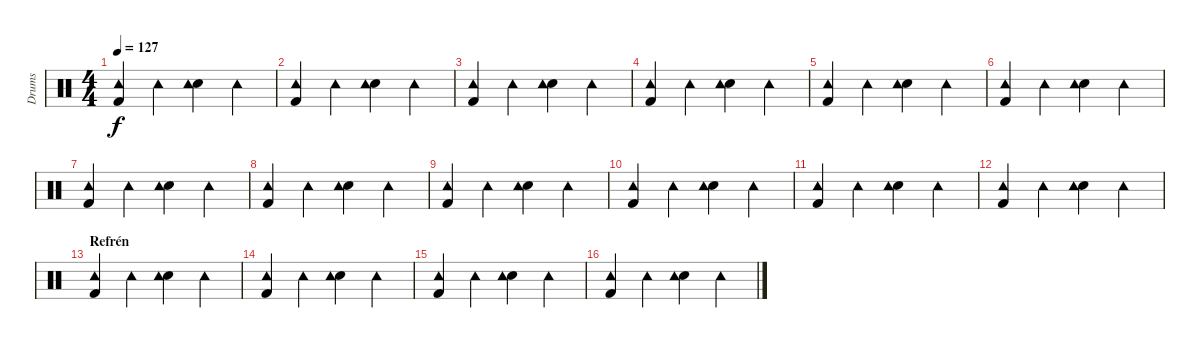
\track ("Drums" "Drums") {instrument percussion}
\staff {score}
\articulation defaults
\ts (4 4)
\tempo 127
\clef neutral
\ks c
("Kick (hit) 2" "Tambourine (hit)").4{dy f} "Tambourine (hit)".4 ("Snare (hit) 2" "Tambourine (hit)").4 "Tambourine (hit)".4 |
("Kick (hit) 2" "Tambourine (hit)").4 "Tambourine (hit)".4 ("Snare (hit) 2" "Tambourine (hit)").4 "Tambourine (hit)".4 |
("Kick (hit) 2" "Tambourine (hit)").4 "Tambourine (hit)".4 ("Snare (hit) 2" "Tambourine (hit)").4 "Tambourine (hit)".4 |
("Kick (hit) 2" "Tambourine (hit)").4 "Tambourine (hit)".4 ("Snare (hit) 2" "Tambourine (hit)").4 "Tambourine (hit)".4 |
("Kick (hit) 2" "Tambourine (hit)").4 "Tambourine (hit)".4 ("Snare (hit) 2" "Tambourine (hit)").4 "Tambourine (hit)".4 |
("Kick (hit) 2" "Tambourine (hit)").4 "Tambourine (hit)".4 ("Snare (hit) 2" "Tambourine (hit)").4 "Tambourine (hit)".4 |
("Kick (hit) 2" "Tambourine (hit)").4 "Tambourine (hit)".4 ("Snare (hit) 2" "Tambourine (hit)").4 "Tambourine (hit)".4 |
("Kick (hit) 2" "Tambourine (hit)").4 "Tambourine (hit)".4 ("Snare (hit) 2" "Tambourine (hit)").4 "Tambourine (hit)".4 |
("Kick (hit) 2" "Tambourine (hit)").4 "Tambourine (hit)".4 ("Snare (hit) 2" "Tambourine (hit)").4 "Tambourine (hit)".4 |
("Kick (hit) 2" "Tambourine (hit)").4 "Tambourine (hit)".4 ("Snare (hit) 2" "Tambourine (hit)").4 "Tambourine (hit)".4 |
("Kick (hit) 2" "Tambourine (hit)").4 "Tambourine (hit)".4 ("Snare (hit) 2" "Tambourine (hit)").4 "Tambourine (hit)".4 |
("Kick (hit) 2" "Tambourine (hit)").4 "Tambourine (hit)".4 ("Snare (hit) 2" "Tambourine (hit)").4 "Tambourine (hit)".4 |
\section ("" "Refrén")
("Kick (hit) 2" "Tambourine (hit)").4 "Tambourine (hit)".4 ("Snare (hit) 2" "Tambourine (hit)").4 "Tambourine (hit)".4 |
("Kick (hit) 2" "Tambourine (hit)").4 "Tambourine (hit)".4 ("Snare (hit) 2" "Tambourine (hit)").4 "Tambourine (hit)".4 |
("Kick (hit) 2" "Tambourine (hit)").4 "Tambourine (hit)".4 ("Snare (hit) 2" "Tambourine (hit)").4 "Tambourine (hit)".4 |
("Kick (hit) 2" "Tambourine (hit)").4 "Tambourine (hit)".4 ("Snare (hit) 2" "Tambourine (hit)").4 "Tambourine (hit)".4
